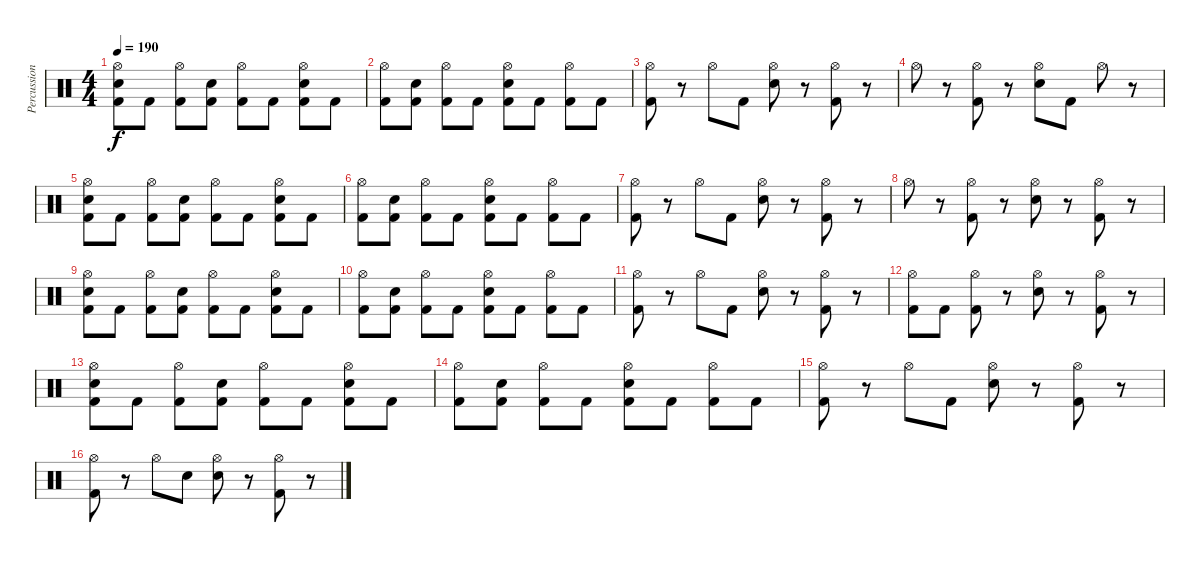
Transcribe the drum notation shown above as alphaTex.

\track ("Percussion" "Percussion") {instrument percussion}
\staff {score}
\articulation defaults
\ts (4 4)
\tempo 190
\clef neutral
\ks c
("Hi-Hat (open)" "Kick (hit) 2" "Electric Snare (hit)").8{dy f} "Kick (hit) 2".8 ("Hi-Hat (open)" "Kick (hit) 2").8 ("Kick (hit) 2" "Electric Snare (hit)").8 ("Hi-Hat (open)" "Kick (hit) 2").8 "Kick (hit) 2".8 ("Hi-Hat (open)" "Kick (hit) 2" "Electric Snare (hit)").8 "Kick (hit) 2".8 |
("Hi-Hat (open)" "Kick (hit) 2").8 ("Kick (hit) 2" "Electric Snare (hit)").8 ("Hi-Hat (open)" "Kick (hit) 2").8 "Kick (hit) 2".8 ("Hi-Hat (open)" "Kick (hit) 2" "Electric Snare (hit)").8 "Kick (hit) 2".8 ("Hi-Hat (open)" "Kick (hit) 2").8 "Kick (hit) 2".8 |
("Hi-Hat (open)" "Kick (hit) 2").8 r.8 "Hi-Hat (open)".8 "Kick (hit) 2".8 ("Hi-Hat (open)" "Electric Snare (hit)").8 r.8 ("Hi-Hat (open)" "Kick (hit) 2").8 r.8 |
"Hi-Hat (open)".8 r.8 ("Hi-Hat (open)" "Kick (hit) 2").8 r.8 ("Hi-Hat (open)" "Electric Snare (hit)").8 "Kick (hit) 2".8 "Hi-Hat (open)".8 r.8 |
("Hi-Hat (open)" "Kick (hit) 2" "Electric Snare (hit)").8 "Kick (hit) 2".8 ("Hi-Hat (open)" "Kick (hit) 2").8 ("Kick (hit) 2" "Electric Snare (hit)").8 ("Hi-Hat (open)" "Kick (hit) 2").8 "Kick (hit) 2".8 ("Hi-Hat (open)" "Kick (hit) 2" "Electric Snare (hit)").8 "Kick (hit) 2".8 |
("Hi-Hat (open)" "Kick (hit) 2").8 ("Kick (hit) 2" "Electric Snare (hit)").8 ("Hi-Hat (open)" "Kick (hit) 2").8 "Kick (hit) 2".8 ("Hi-Hat (open)" "Kick (hit) 2" "Electric Snare (hit)").8 "Kick (hit) 2".8 ("Hi-Hat (open)" "Kick (hit) 2").8 "Kick (hit) 2".8 |
("Hi-Hat (open)" "Kick (hit) 2").8 r.8 "Hi-Hat (open)".8 "Kick (hit) 2".8 ("Hi-Hat (open)" "Electric Snare (hit)").8 r.8 ("Hi-Hat (open)" "Kick (hit) 2").8 r.8 |
"Hi-Hat (open)".8 r.8 ("Hi-Hat (open)" "Kick (hit) 2").8 r.8 ("Hi-Hat (open)" "Electric Snare (hit)").8 r.8 ("Hi-Hat (open)" "Kick (hit) 2").8 r.8 |
("Hi-Hat (open)" "Kick (hit) 2" "Electric Snare (hit)").8 "Kick (hit) 2".8 ("Hi-Hat (open)" "Kick (hit) 2").8 ("Kick (hit) 2" "Electric Snare (hit)").8 ("Hi-Hat (open)" "Kick (hit) 2").8 "Kick (hit) 2".8 ("Hi-Hat (open)" "Kick (hit) 2" "Electric Snare (hit)").8 "Kick (hit) 2".8 |
("Hi-Hat (open)" "Kick (hit) 2").8 ("Kick (hit) 2" "Electric Snare (hit)").8 ("Hi-Hat (open)" "Kick (hit) 2").8 "Kick (hit) 2".8 ("Hi-Hat (open)" "Kick (hit) 2" "Electric Snare (hit)").8 "Kick (hit) 2".8 ("Hi-Hat (open)" "Kick (hit) 2").8 "Kick (hit) 2".8 |
("Hi-Hat (open)" "Kick (hit) 2").8 r.8 "Hi-Hat (open)".8 "Kick (hit) 2".8 ("Hi-Hat (open)" "Electric Snare (hit)").8 r.8 ("Hi-Hat (open)" "Kick (hit) 2").8 r.8 |
("Hi-Hat (open)" "Kick (hit) 2").8 "Kick (hit) 2".8 ("Hi-Hat (open)" "Kick (hit) 2").8 r.8 ("Hi-Hat (open)" "Electric Snare (hit)").8 r.8 ("Hi-Hat (open)" "Kick (hit) 2").8 r.8 |
("Hi-Hat (open)" "Kick (hit) 2" "Electric Snare (hit)").8 "Kick (hit) 2".8 ("Hi-Hat (open)" "Kick (hit) 2").8 ("Kick (hit) 2" "Electric Snare (hit)").8 ("Hi-Hat (open)" "Kick (hit) 2").8 "Kick (hit) 2".8 ("Hi-Hat (open)" "Kick (hit) 2" "Electric Snare (hit)").8 "Kick (hit) 2".8 |
("Hi-Hat (open)" "Kick (hit) 2").8 ("Kick (hit) 2" "Electric Snare (hit)").8 ("Hi-Hat (open)" "Kick (hit) 2").8 "Kick (hit) 2".8 ("Hi-Hat (open)" "Kick (hit) 2" "Electric Snare (hit)").8 "Kick (hit) 2".8 ("Hi-Hat (open)" "Kick (hit) 2").8 "Kick (hit) 2".8 |
("Hi-Hat (open)" "Kick (hit) 2").8 r.8 "Hi-Hat (open)".8 "Kick (hit) 2".8 ("Hi-Hat (open)" "Electric Snare (hit)").8 r.8 ("Hi-Hat (open)" "Kick (hit) 2").8 r.8 |
("Hi-Hat (open)" "Kick (hit) 2").8 r.8 "Hi-Hat (open)".8 "Electric Snare (hit)".8 ("Hi-Hat (open)" "Electric Snare (hit)").8 r.8 ("Hi-Hat (open)" "Kick (hit) 2").8 r.8
